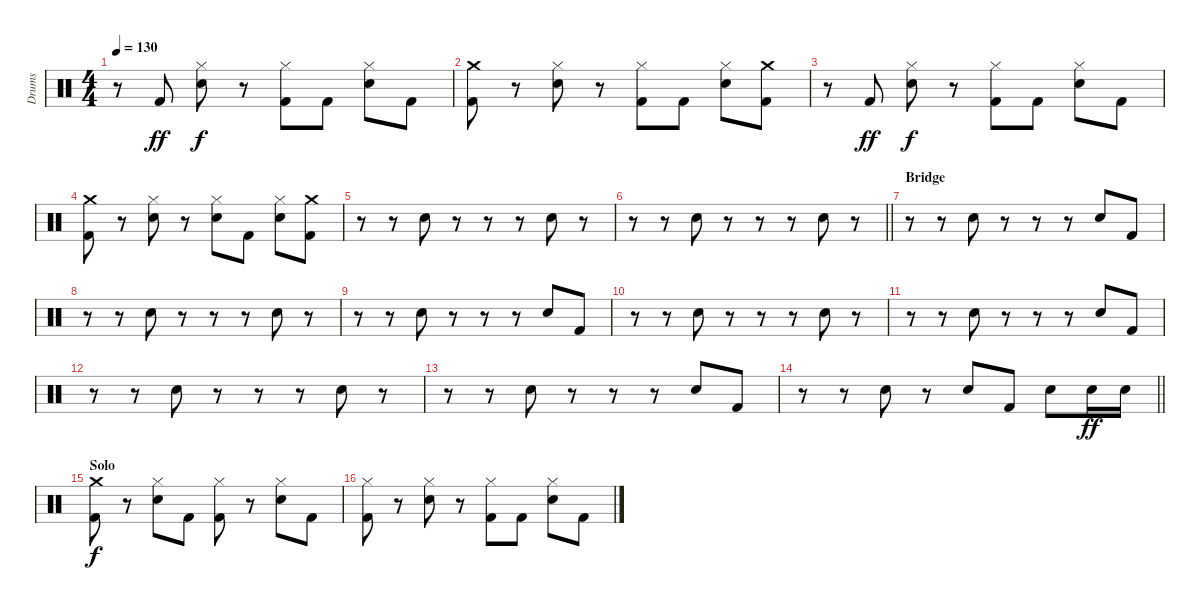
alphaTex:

\track ("Drums" "Drums") {instrument percussion}
\staff {score}
\articulation defaults
\ts (4 4)
\tempo 130
\clef neutral
\ks c
r.8{dy f} "Kick (hit) 2".8{dy ff} ("Hi-Hat (closed)" "Snare (hit) 2").8{dy f} r.8 ("Hi-Hat (closed)" "Kick (hit) 2").8 "Kick (hit) 2".8 ("Hi-Hat (closed)" "Snare (hit) 2").8 "Kick (hit) 2".8 |
("Crash medium (hit)" "Kick (hit) 2").8 r.8 ("Hi-Hat (closed)" "Snare (hit) 2").8 r.8 ("Hi-Hat (closed)" "Kick (hit) 2").8 "Kick (hit) 2".8 ("Hi-Hat (closed)" "Snare (hit) 2").8 ("Crash medium (hit)" "Kick (hit) 2").8 |
r.8 "Kick (hit) 2".8{dy ff} ("Hi-Hat (closed)" "Snare (hit) 2").8{dy f} r.8 ("Hi-Hat (closed)" "Kick (hit) 2").8 "Kick (hit) 2".8 ("Hi-Hat (closed)" "Snare (hit) 2").8 "Kick (hit) 2".8 |
("Crash medium (hit)" "Kick (hit) 2").8 r.8 ("Hi-Hat (closed)" "Snare (hit) 2").8 r.8 ("Hi-Hat (closed)" "Snare (hit) 2").8 "Kick (hit) 2".8 ("Hi-Hat (closed)" "Snare (hit) 2").8 ("Crash medium (hit)" "Kick (hit) 2").8 |
r.8 r.8 "Snare (hit) 2".8 r.8 r.8 r.8 "Snare (hit) 2".8 r.8 |
\barLineRight lightlight
r.8 r.8 "Snare (hit) 2".8 r.8 r.8 r.8 "Snare (hit) 2".8 r.8 |
\section ("" "Bridge")
r.8 r.8 "Snare (hit) 2".8 r.8 r.8 r.8 "Snare (hit) 2".8 "Kick (hit) 2".8 |
r.8 r.8 "Snare (hit) 2".8 r.8 r.8 r.8 "Snare (hit) 2".8 r.8 |
r.8 r.8 "Snare (hit) 2".8 r.8 r.8 r.8 "Snare (hit) 2".8 "Kick (hit) 2".8 |
r.8 r.8 "Snare (hit) 2".8 r.8 r.8 r.8 "Snare (hit) 2".8 r.8 |
r.8 r.8 "Snare (hit) 2".8 r.8 r.8 r.8 "Snare (hit) 2".8 "Kick (hit) 2".8 |
r.8 r.8 "Snare (hit) 2".8 r.8 r.8 r.8 "Snare (hit) 2".8 r.8 |
r.8 r.8 "Snare (hit) 2".8 r.8 r.8 r.8 "Snare (hit) 2".8 "Kick (hit) 2".8 |
\barLineRight lightlight
r.8 r.8 "Snare (hit) 2".8 r.8 "Snare (hit) 2".8 "Kick (hit) 2".8 "Snare (hit) 2".8 "Snare (hit) 2".16{dy ff} "Snare (hit) 2".16 |
\section ("" "Solo")
("Crash medium (hit)" "Kick (hit) 2").8{dy f} r.8 ("Hi-Hat (closed)" "Snare (hit) 2").8 "Kick (hit) 2".8 ("Hi-Hat (closed)" "Kick (hit) 2").8 r.8 ("Hi-Hat (closed)" "Snare (hit) 2").8 "Kick (hit) 2".8 |
("Hi-Hat (closed)" "Kick (hit) 2").8 r.8 ("Hi-Hat (closed)" "Snare (hit) 2").8 r.8 ("Hi-Hat (closed)" "Kick (hit) 2").8 "Kick (hit) 2".8 ("Hi-Hat (closed)" "Snare (hit) 2").8 "Kick (hit) 2".8
